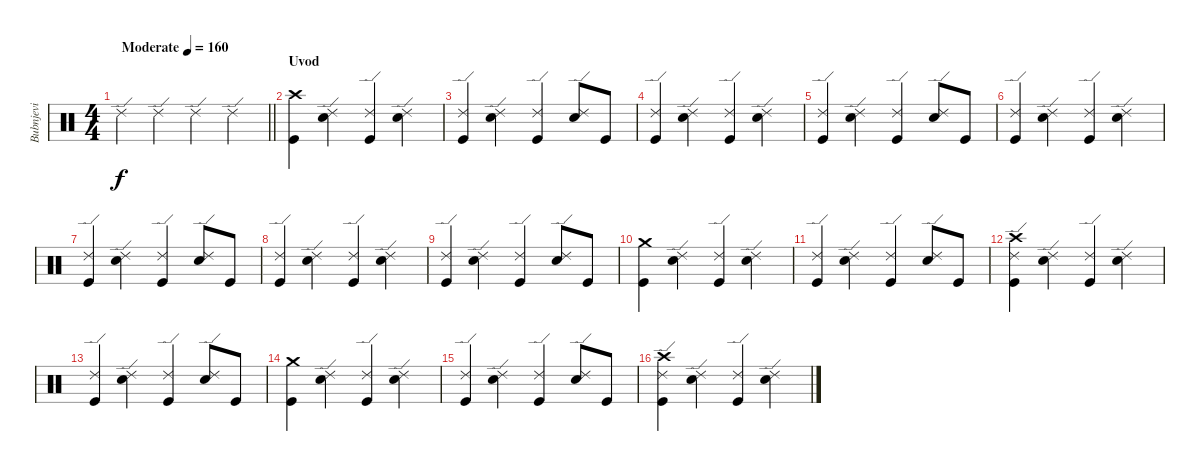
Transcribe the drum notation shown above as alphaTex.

\track ("Bubnjevi" "Bubnjevi") {instrument percussion}
\staff {score}
\articulation defaults
\ts (4 4)
\tempo (160 "Moderate")
\clef neutral
\barLineRight lightlight
\ks c "Ride (edge) 2".4{dy f} "Ride (edge) 2".4 "Ride (edge) 2".4 "Ride (edge) 2".4
|
\section ("" "Uvod")
("Kick (hit)" "Crash high (hit)").4 ("Snare (hit) 2" "Ride (edge) 2").4 ("Kick (hit)" "Ride (edge) 2").4 ("Ride (edge) 2" "Snare (hit) 2").4 |
("Kick (hit)" "Ride (edge) 2").4 ("Snare (hit) 2" "Ride (edge) 2").4 ("Kick (hit)" "Ride (edge) 2").4 ("Snare (hit) 2" "Ride (edge) 2").8 "Kick (hit)".8 |
("Kick (hit)" "Ride (edge) 2").4 ("Snare (hit) 2" "Ride (edge) 2").4 ("Kick (hit)" "Ride (edge) 2").4 ("Snare (hit) 2" "Ride (edge) 2").4 |
("Kick (hit)" "Ride (edge) 2").4 ("Snare (hit) 2" "Ride (edge) 2").4 ("Kick (hit)" "Ride (edge) 2").4 ("Snare (hit) 2" "Ride (edge) 2").8 "Kick (hit)".8 |
("Kick (hit)" "Ride (edge) 2").4 ("Snare (hit) 2" "Ride (edge) 2").4 ("Kick (hit)" "Ride (edge) 2").4 ("Snare (hit) 2" "Ride (edge) 2").4 |
("Kick (hit)" "Ride (edge) 2").4 ("Snare (hit) 2" "Ride (edge) 2").4 ("Kick (hit)" "Ride (edge) 2").4 ("Snare (hit) 2" "Ride (edge) 2").8 "Kick (hit)".8 |
("Kick (hit)" "Ride (edge) 2").4 ("Snare (hit) 2" "Ride (edge) 2").4 ("Kick (hit)" "Ride (edge) 2").4 ("Snare (hit) 2" "Ride (edge) 2").4 |
("Kick (hit)" "Ride (edge) 2").4 ("Snare (hit) 2" "Ride (edge) 2").4 ("Kick (hit)" "Ride (edge) 2").4 ("Snare (hit) 2" "Ride (edge) 2").8 "Kick (hit)".8 |
("Kick (hit)" "Crash medium (hit)").4 ("Snare (hit) 2" "Ride (edge) 2").4 ("Kick (hit)" "Ride (edge) 2").4 ("Ride (edge) 2" "Snare (hit) 2").4 |
("Kick (hit)" "Ride (edge) 2").4 ("Snare (hit) 2" "Ride (edge) 2").4 ("Kick (hit)" "Ride (edge) 2").4 ("Snare (hit) 2" "Ride (edge) 2").8 "Kick (hit)".8 |
("Kick (hit)" "Ride (edge) 2" "Crash high (hit)").4 ("Snare (hit) 2" "Ride (edge) 2").4 ("Kick (hit)" "Ride (edge) 2").4 ("Snare (hit) 2" "Ride (edge) 2").4 |
("Kick (hit)" "Ride (edge) 2").4 ("Snare (hit) 2" "Ride (edge) 2").4 ("Kick (hit)" "Ride (edge) 2").4 ("Snare (hit) 2" "Ride (edge) 2").8 "Kick (hit)".8 |
("Kick (hit)" "Crash medium (hit)").4 ("Snare (hit) 2" "Ride (edge) 2").4 ("Kick (hit)" "Ride (edge) 2").4 ("Ride (edge) 2" "Snare (hit) 2").4 |
("Kick (hit)" "Ride (edge) 2").4 ("Snare (hit) 2" "Ride (edge) 2").4 ("Kick (hit)" "Ride (edge) 2").4 ("Snare (hit) 2" "Ride (edge) 2").8 "Kick (hit)".8 |
("Kick (hit)" "Ride (edge) 2" "Crash high (hit)").4 ("Snare (hit) 2" "Ride (edge) 2").4 ("Kick (hit)" "Ride (edge) 2").4 ("Snare (hit) 2" "Ride (edge) 2").4
